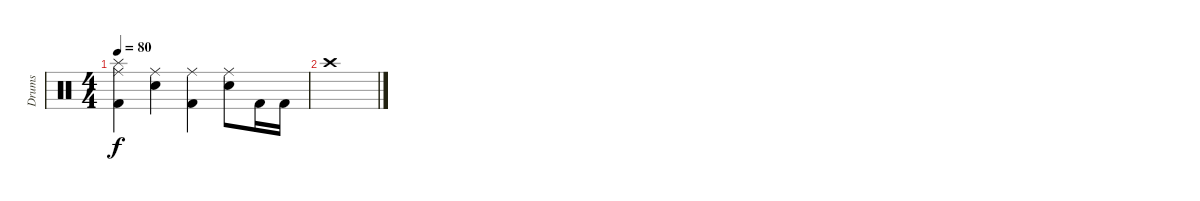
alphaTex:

\track ("Drums" "Drums") {instrument percussion}
\staff {score}
\articulation defaults
\ts (4 4)
\tempo 80
\clef neutral
\ks c
("Splash (hit)" "Ride (middle)" "Kick (hit) 2").4{dy f} ("Ride (middle)" "Snare (hit) 2").4 ("Ride (middle)" "Kick (hit) 2").4 ("Ride (middle)" "Snare (hit) 2").8 "Kick (hit) 2".16 "Kick (hit) 2".16 |
"Crash high (hit)".1
